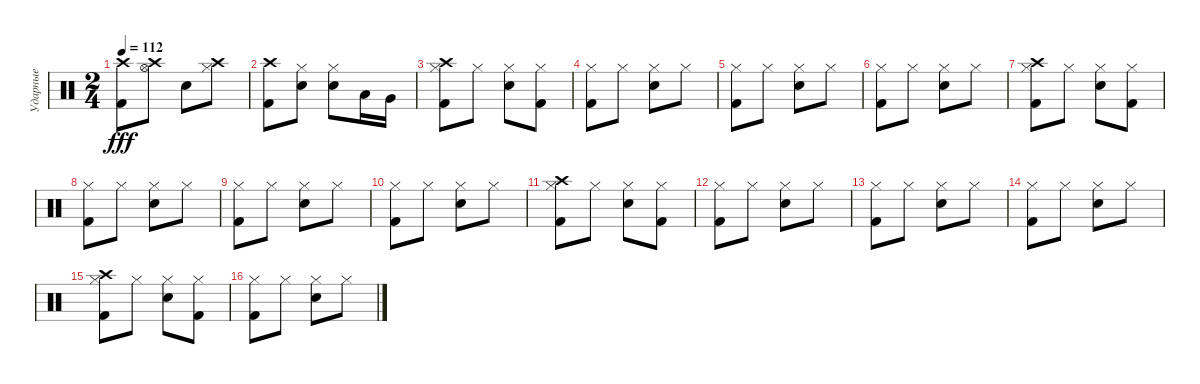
\track ("Ударные" "Ударные") {instrument percussion}
\staff {score}
\articulation defaults
\ts (2 4)
\tempo 112
\clef neutral
\ks c
("Kick (hit) 2" "Crash high (hit)").8{dy fff} ("Hi-Hat (open)" "Crash high (hit)").8 "Electric Snare (hit)".8 ("Hi-Hat (closed)" "Crash high (hit)").8 |
("Kick (hit) 2" "Crash high (hit)").8 ("Electric Snare (hit)" "Hi-Hat (closed)").8 ("Electric Snare (hit)" "Hi-Hat (closed)").8 "Low Tom (hit)".16 "Very Low Tom (hit)".16 |
("Kick (hit) 2" "Hi-Hat (closed)" "Crash high (hit)").8 "Hi-Hat (closed)".8 ("Electric Snare (hit)" "Hi-Hat (closed)").8 ("Hi-Hat (closed)" "Kick (hit) 2").8 |
("Kick (hit) 2" "Hi-Hat (closed)").8 "Hi-Hat (closed)".8 ("Electric Snare (hit)" "Hi-Hat (closed)").8 "Hi-Hat (closed)".8 |
("Kick (hit) 2" "Hi-Hat (closed)").8 "Hi-Hat (closed)".8 ("Electric Snare (hit)" "Hi-Hat (closed)").8 "Hi-Hat (closed)".8 |
("Kick (hit) 2" "Hi-Hat (closed)").8 "Hi-Hat (closed)".8 ("Electric Snare (hit)" "Hi-Hat (closed)").8 "Hi-Hat (closed)".8 |
("Kick (hit) 2" "Crash high (hit)" "Hi-Hat (closed)").8 "Hi-Hat (closed)".8 ("Electric Snare (hit)" "Hi-Hat (closed)").8 ("Kick (hit) 2" "Hi-Hat (closed)").8 |
("Kick (hit) 2" "Hi-Hat (closed)").8 "Hi-Hat (closed)".8 ("Electric Snare (hit)" "Hi-Hat (closed)").8 "Hi-Hat (closed)".8 |
("Kick (hit) 2" "Hi-Hat (closed)").8 "Hi-Hat (closed)".8 ("Electric Snare (hit)" "Hi-Hat (closed)").8 "Hi-Hat (closed)".8 |
("Kick (hit) 2" "Hi-Hat (closed)").8 "Hi-Hat (closed)".8 ("Electric Snare (hit)" "Hi-Hat (closed)").8 "Hi-Hat (closed)".8 |
("Kick (hit) 2" "Crash high (hit)" "Hi-Hat (closed)").8 "Hi-Hat (closed)".8 ("Electric Snare (hit)" "Hi-Hat (closed)").8 ("Hi-Hat (closed)" "Kick (hit) 2").8 |
("Kick (hit) 2" "Hi-Hat (closed)").8 "Hi-Hat (closed)".8 ("Electric Snare (hit)" "Hi-Hat (closed)").8 "Hi-Hat (closed)".8 |
("Kick (hit) 2" "Hi-Hat (closed)").8 "Hi-Hat (closed)".8 ("Electric Snare (hit)" "Hi-Hat (closed)").8 "Hi-Hat (closed)".8 |
("Kick (hit) 2" "Hi-Hat (closed)").8 "Hi-Hat (closed)".8 ("Electric Snare (hit)" "Hi-Hat (closed)").8 "Hi-Hat (closed)".8 |
("Kick (hit) 2" "Crash high (hit)" "Hi-Hat (closed)").8 "Hi-Hat (closed)".8 ("Electric Snare (hit)" "Hi-Hat (closed)").8 ("Kick (hit) 2" "Hi-Hat (closed)").8 |
("Kick (hit) 2" "Hi-Hat (closed)").8 "Hi-Hat (closed)".8 ("Electric Snare (hit)" "Hi-Hat (closed)").8 "Hi-Hat (closed)".8
